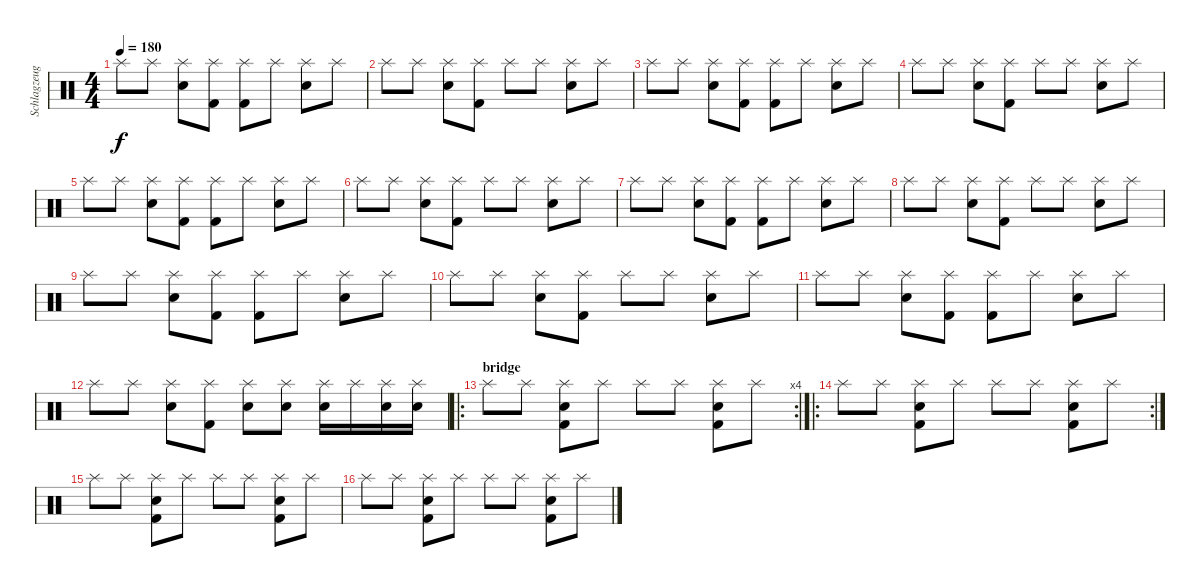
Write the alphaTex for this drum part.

\track ("Schlagzeug" "Schlagzeug") {instrument percussion}
\staff {score}
\articulation defaults
\ts (4 4)
\tempo 180
\clef neutral
\ks c "Splash (hit)".8{dy f} "Splash (hit)".8
("Splash (hit)" "Electric Snare (hit)").8 ("Splash (hit)" "Kick (hit) 2").8 ("Splash (hit)" "Kick (hit) 2").8 "Splash (hit)".8 ("Splash (hit)" "Electric Snare (hit)").8 "Splash (hit)".8 |
"Splash (hit)".8 "Splash (hit)".8 ("Splash (hit)" "Electric Snare (hit)").8 ("Splash (hit)" "Kick (hit) 2").8 "Splash (hit)".8 "Splash (hit)".8 ("Splash (hit)" "Electric Snare (hit)").8 "Splash (hit)".8 |
"Splash (hit)".8 "Splash (hit)".8 ("Splash (hit)" "Electric Snare (hit)").8 ("Splash (hit)" "Kick (hit) 2").8 ("Splash (hit)" "Kick (hit) 2").8 "Splash (hit)".8 ("Splash (hit)" "Electric Snare (hit)").8 "Splash (hit)".8 |
"Splash (hit)".8 "Splash (hit)".8 ("Splash (hit)" "Electric Snare (hit)").8 ("Splash (hit)" "Kick (hit) 2").8 "Splash (hit)".8 "Splash (hit)".8 ("Splash (hit)" "Electric Snare (hit)").8 "Splash (hit)".8 |
"Splash (hit)".8 "Splash (hit)".8 ("Splash (hit)" "Electric Snare (hit)").8 ("Splash (hit)" "Kick (hit) 2").8 ("Splash (hit)" "Kick (hit) 2").8 "Splash (hit)".8 ("Splash (hit)" "Electric Snare (hit)").8 "Splash (hit)".8 |
"Splash (hit)".8 "Splash (hit)".8 ("Splash (hit)" "Electric Snare (hit)").8 ("Splash (hit)" "Kick (hit) 2").8 "Splash (hit)".8 "Splash (hit)".8 ("Splash (hit)" "Electric Snare (hit)").8 "Splash (hit)".8 |
"Splash (hit)".8 "Splash (hit)".8 ("Splash (hit)" "Electric Snare (hit)").8 ("Splash (hit)" "Kick (hit) 2").8 ("Splash (hit)" "Kick (hit) 2").8 "Splash (hit)".8 ("Splash (hit)" "Electric Snare (hit)").8 "Splash (hit)".8 |
"Splash (hit)".8 "Splash (hit)".8 ("Splash (hit)" "Electric Snare (hit)").8 ("Splash (hit)" "Kick (hit) 2").8 "Splash (hit)".8 "Splash (hit)".8 ("Splash (hit)" "Electric Snare (hit)").8 "Splash (hit)".8 |
"Splash (hit)".8 "Splash (hit)".8 ("Splash (hit)" "Electric Snare (hit)").8 ("Splash (hit)" "Kick (hit) 2").8 ("Splash (hit)" "Kick (hit) 2").8 "Splash (hit)".8 ("Splash (hit)" "Electric Snare (hit)").8 "Splash (hit)".8 |
"Splash (hit)".8 "Splash (hit)".8 ("Splash (hit)" "Electric Snare (hit)").8 ("Splash (hit)" "Kick (hit) 2").8 "Splash (hit)".8 "Splash (hit)".8 ("Splash (hit)" "Electric Snare (hit)").8 "Splash (hit)".8 |
"Splash (hit)".8 "Splash (hit)".8 ("Splash (hit)" "Electric Snare (hit)").8 ("Splash (hit)" "Kick (hit) 2").8 ("Splash (hit)" "Kick (hit) 2").8 "Splash (hit)".8 ("Splash (hit)" "Electric Snare (hit)").8 "Splash (hit)".8 |
"Splash (hit)".8 "Splash (hit)".8 ("Splash (hit)" "Electric Snare (hit)").8 ("Splash (hit)" "Kick (hit) 2").8 ("Splash (hit)" "Electric Snare (hit)").8 ("Splash (hit)" "Electric Snare (hit)").8 ("Splash (hit)" "Electric Snare (hit)").16 "Splash (hit)".16 ("Splash (hit)" "Electric Snare (hit)").16 ("Splash (hit)" "Electric Snare (hit)").16 |
\ro
\rc 4
\section ("" "bridge")
"Splash (hit)".8 "Splash (hit)".8 ("Splash (hit)" "Electric Snare (hit)" "Kick (hit) 2").8 "Splash (hit)".8 "Splash (hit)".8 "Splash (hit)".8 ("Splash (hit)" "Electric Snare (hit)" "Kick (hit) 2").8 "Splash (hit)".8 |
\ro
\rc 2 "Splash (hit)".8 "Splash (hit)".8
("Splash (hit)" "Electric Snare (hit)" "Kick (hit) 2").8 "Splash (hit)".8 "Splash (hit)".8 "Splash (hit)".8 ("Splash (hit)" "Electric Snare (hit)" "Kick (hit) 2").8 "Splash (hit)".8 |
"Splash (hit)".8 "Splash (hit)".8 ("Splash (hit)" "Electric Snare (hit)" "Kick (hit) 2").8 "Splash (hit)".8 "Splash (hit)".8 "Splash (hit)".8 ("Splash (hit)" "Electric Snare (hit)" "Kick (hit) 2").8 "Splash (hit)".8 |
"Splash (hit)".8 "Splash (hit)".8 ("Splash (hit)" "Electric Snare (hit)" "Kick (hit) 2").8 "Splash (hit)".8 "Splash (hit)".8 "Splash (hit)".8 ("Splash (hit)" "Electric Snare (hit)" "Kick (hit) 2").8 "Splash (hit)".8
